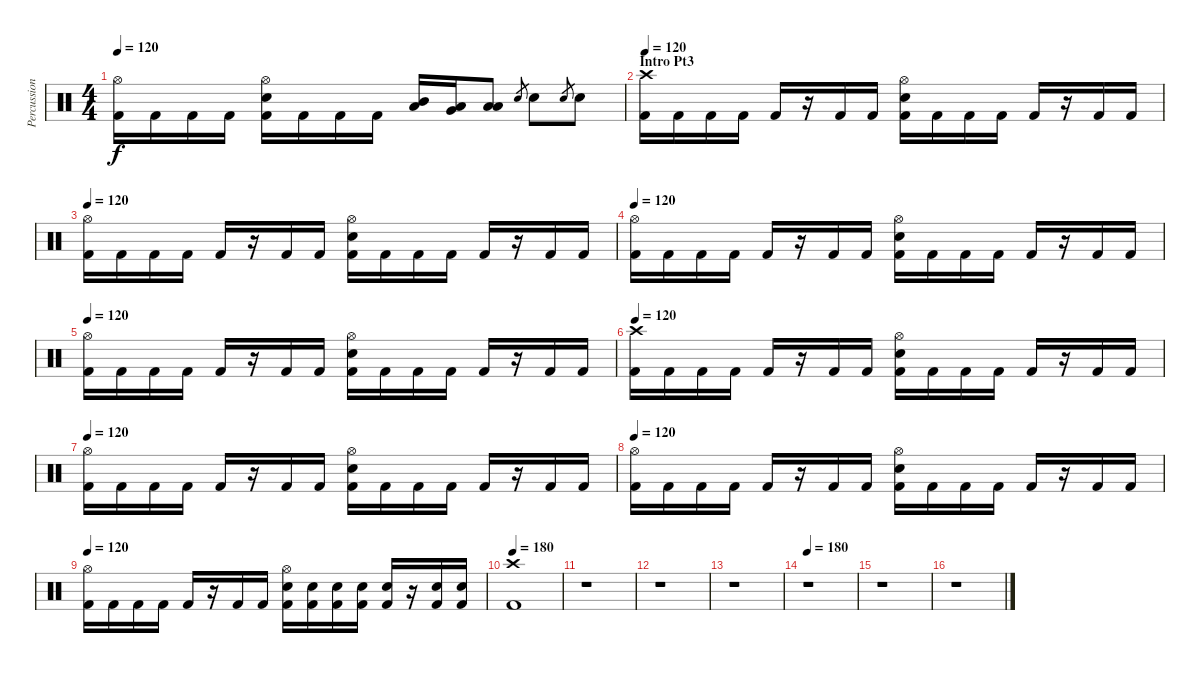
\track ("Percussion" "Percussion") {instrument percussion}
\staff {score}
\articulation defaults
\ts (4 4)
\tempo 120
\clef neutral
\ks c
("Hi-Hat (open)" "Kick (hit) 2").16{dy f} "Kick (hit) 2".16 "Kick (hit) 2".16 "Kick (hit) 2".16 ("Hi-Hat (open)" "Electric Snare (hit)" "Kick (hit) 2").16 "Kick (hit) 2".16 "Kick (hit) 2".16 "Kick (hit) 2".16 ("Mid Tom (hit)" "Low Tom (hit)").16 ("Low Floor Tom (hit)" "Very Low Tom (hit)").16 ("Low Tom (hit)" "Low Tom (hit)").8 "Electric Snare (hit)".8{gr} "Electric Snare (hit)".8 "Electric Snare (hit)".8{gr} "Electric Snare (hit)".8 |
\section ("" "Intro Pt3")
\tempo 120
("Crash high (hit)" "Kick (hit) 2").16 "Kick (hit) 2".16 "Kick (hit) 2".16 "Kick (hit) 2".16 "Kick (hit) 2".16 r.16 "Kick (hit) 2".16 "Kick (hit) 2".16 ("Hi-Hat (open)" "Electric Snare (hit)" "Kick (hit) 2").16 "Kick (hit) 2".16 "Kick (hit) 2".16 "Kick (hit) 2".16 "Kick (hit) 2".16 r.16 "Kick (hit) 2".16 "Kick (hit) 2".16 |
\tempo 120
("Hi-Hat (open)" "Kick (hit) 2").16 "Kick (hit) 2".16 "Kick (hit) 2".16 "Kick (hit) 2".16 "Kick (hit) 2".16 r.16 "Kick (hit) 2".16 "Kick (hit) 2".16 ("Hi-Hat (open)" "Electric Snare (hit)" "Kick (hit) 2").16 "Kick (hit) 2".16 "Kick (hit) 2".16 "Kick (hit) 2".16 "Kick (hit) 2".16 r.16 "Kick (hit) 2".16 "Kick (hit) 2".16 |
\tempo 120
("Hi-Hat (open)" "Kick (hit) 2").16 "Kick (hit) 2".16 "Kick (hit) 2".16 "Kick (hit) 2".16 "Kick (hit) 2".16 r.16 "Kick (hit) 2".16 "Kick (hit) 2".16 ("Hi-Hat (open)" "Electric Snare (hit)" "Kick (hit) 2").16 "Kick (hit) 2".16 "Kick (hit) 2".16 "Kick (hit) 2".16 "Kick (hit) 2".16 r.16 "Kick (hit) 2".16 "Kick (hit) 2".16 |
\tempo 120
("Hi-Hat (open)" "Kick (hit) 2").16 "Kick (hit) 2".16 "Kick (hit) 2".16 "Kick (hit) 2".16 "Kick (hit) 2".16 r.16 "Kick (hit) 2".16 "Kick (hit) 2".16 ("Hi-Hat (open)" "Electric Snare (hit)" "Kick (hit) 2").16 "Kick (hit) 2".16 "Kick (hit) 2".16 "Kick (hit) 2".16 "Kick (hit) 2".16 r.16 "Kick (hit) 2".16 "Kick (hit) 2".16 |
\tempo 120
("Crash high (hit)" "Kick (hit) 2").16 "Kick (hit) 2".16 "Kick (hit) 2".16 "Kick (hit) 2".16 "Kick (hit) 2".16 r.16 "Kick (hit) 2".16 "Kick (hit) 2".16 ("Hi-Hat (open)" "Electric Snare (hit)" "Kick (hit) 2").16 "Kick (hit) 2".16 "Kick (hit) 2".16 "Kick (hit) 2".16 "Kick (hit) 2".16 r.16 "Kick (hit) 2".16 "Kick (hit) 2".16 |
\tempo 120
("Hi-Hat (open)" "Kick (hit) 2").16 "Kick (hit) 2".16 "Kick (hit) 2".16 "Kick (hit) 2".16 "Kick (hit) 2".16 r.16 "Kick (hit) 2".16 "Kick (hit) 2".16 ("Hi-Hat (open)" "Electric Snare (hit)" "Kick (hit) 2").16 "Kick (hit) 2".16 "Kick (hit) 2".16 "Kick (hit) 2".16 "Kick (hit) 2".16 r.16 "Kick (hit) 2".16 "Kick (hit) 2".16 |
\tempo 120
("Hi-Hat (open)" "Kick (hit) 2").16 "Kick (hit) 2".16 "Kick (hit) 2".16 "Kick (hit) 2".16 "Kick (hit) 2".16 r.16 "Kick (hit) 2".16 "Kick (hit) 2".16 ("Hi-Hat (open)" "Electric Snare (hit)" "Kick (hit) 2").16 "Kick (hit) 2".16 "Kick (hit) 2".16 "Kick (hit) 2".16 "Kick (hit) 2".16 r.16 "Kick (hit) 2".16 "Kick (hit) 2".16 |
\tempo 120
("Hi-Hat (open)" "Kick (hit) 2").16 "Kick (hit) 2".16 "Kick (hit) 2".16 "Kick (hit) 2".16 "Kick (hit) 2".16 r.16 "Kick (hit) 2".16 "Kick (hit) 2".16 ("Hi-Hat (open)" "Electric Snare (hit)" "Kick (hit) 2").16 ("Electric Snare (hit)" "Kick (hit) 2").16 ("Electric Snare (hit)" "Kick (hit) 2").16 ("Electric Snare (hit)" "Kick (hit) 2").16 ("Electric Snare (hit)" "Kick (hit) 2").16 r.16 ("Electric Snare (hit)" "Kick (hit) 2").16 ("Electric Snare (hit)" "Kick (hit) 2").16 |
\tempo 180
("Crash high (hit)" "Kick (hit) 2").1 |
r.1 |
r.1 |
r.1 |
\tempo 180
r.1 |
r.1 |
r.1
